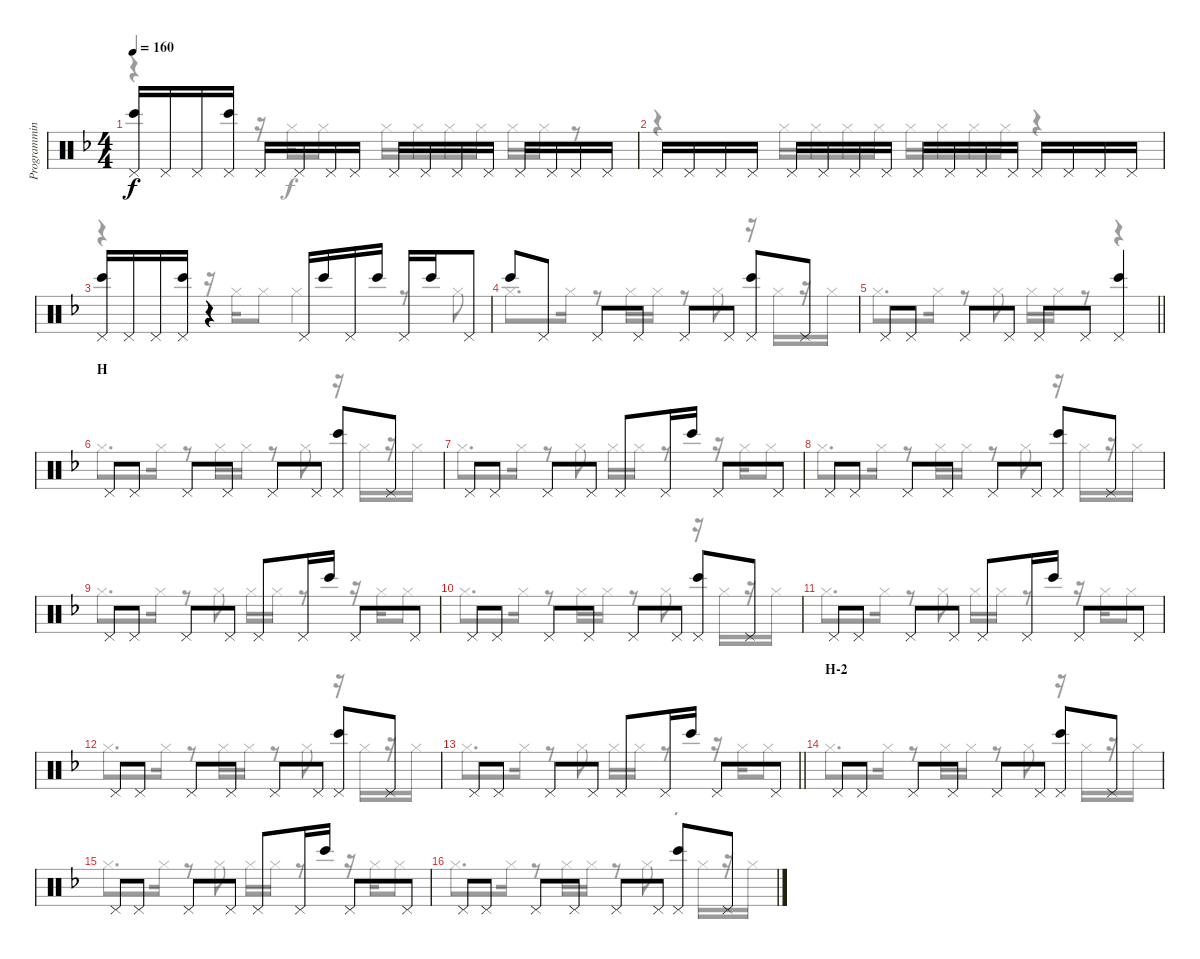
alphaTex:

\track ("Programming" "Programmin") {instrument percussion}
\staff {score}
\articulation defaults
\voice
\ts (4 4)
\tempo 160
\clef neutral
\ks f
("Pedal Hi-Hat (hit)" "Bongo High (hit)").16{dy f} "Pedal Hi-Hat (hit)".16 "Pedal Hi-Hat (hit)".16 ("Pedal Hi-Hat (hit)" "Bongo High (hit)").16 "Pedal Hi-Hat (hit)".16 "Pedal Hi-Hat (hit)".16 "Pedal Hi-Hat (hit)".16 "Pedal Hi-Hat (hit)".16 "Pedal Hi-Hat (hit)".16 "Pedal Hi-Hat (hit)".16 "Pedal Hi-Hat (hit)".16 "Pedal Hi-Hat (hit)".16 "Pedal Hi-Hat (hit)".16 "Pedal Hi-Hat (hit)".16 "Pedal Hi-Hat (hit)".16 "Pedal Hi-Hat (hit)".16 |
"Pedal Hi-Hat (hit)".16 "Pedal Hi-Hat (hit)".16 "Pedal Hi-Hat (hit)".16 "Pedal Hi-Hat (hit)".16 "Pedal Hi-Hat (hit)".16 "Pedal Hi-Hat (hit)".16 "Pedal Hi-Hat (hit)".16 "Pedal Hi-Hat (hit)".16 "Pedal Hi-Hat (hit)".16 "Pedal Hi-Hat (hit)".16 "Pedal Hi-Hat (hit)".16 "Pedal Hi-Hat (hit)".16 "Pedal Hi-Hat (hit)".16 "Pedal Hi-Hat (hit)".16 "Pedal Hi-Hat (hit)".16 "Pedal Hi-Hat (hit)".16 |
("Pedal Hi-Hat (hit)" "Bongo High (hit)").16 "Pedal Hi-Hat (hit)".16 "Pedal Hi-Hat (hit)".16 ("Pedal Hi-Hat (hit)" "Bongo High (hit)").16 r.4 "Pedal Hi-Hat (hit)".16 "Bongo High (hit)".16 "Pedal Hi-Hat (hit)".16 "Bongo High (hit)".16 "Pedal Hi-Hat (hit)".16 "Bongo High (hit)".16 "Pedal Hi-Hat (hit)".8 |
"Bongo High (hit)".8 "Pedal Hi-Hat (hit)".8 "Pedal Hi-Hat (hit)".8 "Pedal Hi-Hat (hit)".8 "Pedal Hi-Hat (hit)".8 "Pedal Hi-Hat (hit)".8 ("Pedal Hi-Hat (hit)" "Bongo High (hit)").8 "Pedal Hi-Hat (hit)".8 |
\barLineRight lightlight "Pedal Hi-Hat (hit)".8 "Pedal Hi-Hat (hit)".8 "Pedal Hi-Hat (hit)".8 "Pedal Hi-Hat (hit)".8 "Pedal Hi-Hat (hit)".8 "Pedal Hi-Hat (hit)".8
("Pedal Hi-Hat (hit)" "Bongo High (hit)").4 |
\section ("" "H")
"Pedal Hi-Hat (hit)".8 "Pedal Hi-Hat (hit)".8 "Pedal Hi-Hat (hit)".8 "Pedal Hi-Hat (hit)".8 "Pedal Hi-Hat (hit)".8 "Pedal Hi-Hat (hit)".8 ("Pedal Hi-Hat (hit)" "Bongo High (hit)").8 "Pedal Hi-Hat (hit)".8 |
"Pedal Hi-Hat (hit)".8 "Pedal Hi-Hat (hit)".8 "Pedal Hi-Hat (hit)".8 "Pedal Hi-Hat (hit)".8 "Pedal Hi-Hat (hit)".8 "Pedal Hi-Hat (hit)".16 "Bongo High (hit)".16 "Pedal Hi-Hat (hit)".8 "Pedal Hi-Hat (hit)".8 |
"Pedal Hi-Hat (hit)".8 "Pedal Hi-Hat (hit)".8 "Pedal Hi-Hat (hit)".8 "Pedal Hi-Hat (hit)".8 "Pedal Hi-Hat (hit)".8 "Pedal Hi-Hat (hit)".8 ("Pedal Hi-Hat (hit)" "Bongo High (hit)").8 "Pedal Hi-Hat (hit)".8 |
"Pedal Hi-Hat (hit)".8 "Pedal Hi-Hat (hit)".8 "Pedal Hi-Hat (hit)".8 "Pedal Hi-Hat (hit)".8 "Pedal Hi-Hat (hit)".8 "Pedal Hi-Hat (hit)".16 "Bongo High (hit)".16 "Pedal Hi-Hat (hit)".8 "Pedal Hi-Hat (hit)".8 |
"Pedal Hi-Hat (hit)".8 "Pedal Hi-Hat (hit)".8 "Pedal Hi-Hat (hit)".8 "Pedal Hi-Hat (hit)".8 "Pedal Hi-Hat (hit)".8 "Pedal Hi-Hat (hit)".8 ("Pedal Hi-Hat (hit)" "Bongo High (hit)").8 "Pedal Hi-Hat (hit)".8 |
"Pedal Hi-Hat (hit)".8 "Pedal Hi-Hat (hit)".8 "Pedal Hi-Hat (hit)".8 "Pedal Hi-Hat (hit)".8 "Pedal Hi-Hat (hit)".8 "Pedal Hi-Hat (hit)".16 "Bongo High (hit)".16 "Pedal Hi-Hat (hit)".8 "Pedal Hi-Hat (hit)".8 |
"Pedal Hi-Hat (hit)".8 "Pedal Hi-Hat (hit)".8 "Pedal Hi-Hat (hit)".8 "Pedal Hi-Hat (hit)".8 "Pedal Hi-Hat (hit)".8 "Pedal Hi-Hat (hit)".8 ("Pedal Hi-Hat (hit)" "Bongo High (hit)").8 "Pedal Hi-Hat (hit)".8 |
\barLineRight lightlight "Pedal Hi-Hat (hit)".8 "Pedal Hi-Hat (hit)".8 "Pedal Hi-Hat (hit)".8 "Pedal Hi-Hat (hit)".8 "Pedal Hi-Hat (hit)".8 "Pedal Hi-Hat (hit)".16 "Bongo High (hit)".16 "Pedal Hi-Hat (hit)".8 "Pedal Hi-Hat (hit)".8
|
\section ("" "H-2")
"Pedal Hi-Hat (hit)".8 "Pedal Hi-Hat (hit)".8 "Pedal Hi-Hat (hit)".8 "Pedal Hi-Hat (hit)".8 "Pedal Hi-Hat (hit)".8 "Pedal Hi-Hat (hit)".8 ("Pedal Hi-Hat (hit)" "Bongo High (hit)").8 "Pedal Hi-Hat (hit)".8 |
"Pedal Hi-Hat (hit)".8 "Pedal Hi-Hat (hit)".8 "Pedal Hi-Hat (hit)".8 "Pedal Hi-Hat (hit)".8 "Pedal Hi-Hat (hit)".8 "Pedal Hi-Hat (hit)".16 "Bongo High (hit)".16 "Pedal Hi-Hat (hit)".8 "Pedal Hi-Hat (hit)".8 |
"Pedal Hi-Hat (hit)".8 "Pedal Hi-Hat (hit)".8 "Pedal Hi-Hat (hit)".8 "Pedal Hi-Hat (hit)".8 "Pedal Hi-Hat (hit)".8 "Pedal Hi-Hat (hit)".8 ("Pedal Hi-Hat (hit)" "Bongo High (hit)").8 "Pedal Hi-Hat (hit)".8
\voice
\clef neutral
\ottava regular
\simile none
\ks f
r.4{dy f} r.16 "Hi-Hat (closed)".16 "Hi-Hat (closed)".8 "Hi-Hat (closed)".16 "Hi-Hat (closed)".16 "Hi-Hat (closed)".16 "Hi-Hat (closed)".16 "Hi-Hat (closed)".16 "Hi-Hat (closed)".16 r.8 |
r.4 "Hi-Hat (closed)".16 "Hi-Hat (closed)".16 "Hi-Hat (closed)".16 "Hi-Hat (closed)".16 "Hi-Hat (closed)".16 "Hi-Hat (closed)".16 "Hi-Hat (closed)".16 "Hi-Hat (closed)".16 r.4 |
r.4 r.16 "Hi-Hat (closed)".16 "Hi-Hat (closed)".8 "Hi-Hat (closed)".4 r.8 "Hi-Hat (closed)".8 |
"Hi-Hat (closed)".8{d} "Hi-Hat (closed)".16 r.8 "Hi-Hat (closed)".16 "Hi-Hat (closed)".16 r.8 "Hi-Hat (closed)".8 r.16 "Hi-Hat (closed)".16 r.16 "Hi-Hat (closed)".16 |
\barLineRight lightlight "Hi-Hat (closed)".8{d} "Hi-Hat (closed)".16
r.8 "Hi-Hat (closed)".8 "Hi-Hat (closed)".16 "Hi-Hat (closed)".16 r.8 r.4 |
"Hi-Hat (closed)".8{d} "Hi-Hat (closed)".16 r.8 "Hi-Hat (closed)".16 "Hi-Hat (closed)".16 r.8 "Hi-Hat (closed)".8 r.16 "Hi-Hat (closed)".16 r.16 "Hi-Hat (closed)".16 |
"Hi-Hat (closed)".8{d} "Hi-Hat (closed)".16 r.8 "Hi-Hat (closed)".8 "Hi-Hat (closed)".16 "Hi-Hat (closed)".16 r.8 r.16 "Hi-Hat (closed)".16 "Hi-Hat (closed)".8 |
"Hi-Hat (closed)".8{d} "Hi-Hat (closed)".16 r.8 "Hi-Hat (closed)".16 "Hi-Hat (closed)".16 r.8 "Hi-Hat (closed)".8 r.16 "Hi-Hat (closed)".16 r.16 "Hi-Hat (closed)".16 |
"Hi-Hat (closed)".8{d} "Hi-Hat (closed)".16 r.8 "Hi-Hat (closed)".8 "Hi-Hat (closed)".16 "Hi-Hat (closed)".16 r.8 r.16 "Hi-Hat (closed)".16 "Hi-Hat (closed)".8 |
"Hi-Hat (closed)".8{d} "Hi-Hat (closed)".16 r.8 "Hi-Hat (closed)".16 "Hi-Hat (closed)".16 r.8 "Hi-Hat (closed)".8 r.16 "Hi-Hat (closed)".16 r.16 "Hi-Hat (closed)".16 |
"Hi-Hat (closed)".8{d} "Hi-Hat (closed)".16 r.8 "Hi-Hat (closed)".8 "Hi-Hat (closed)".16 "Hi-Hat (closed)".16 r.8 r.16 "Hi-Hat (closed)".16 "Hi-Hat (closed)".8 |
"Hi-Hat (closed)".8{d} "Hi-Hat (closed)".16 r.8 "Hi-Hat (closed)".16 "Hi-Hat (closed)".16 r.8 "Hi-Hat (closed)".8 r.16 "Hi-Hat (closed)".16 r.16 "Hi-Hat (closed)".16 |
\barLineRight lightlight "Hi-Hat (closed)".8{d} "Hi-Hat (closed)".16
r.8 "Hi-Hat (closed)".8 "Hi-Hat (closed)".16 "Hi-Hat (closed)".16 r.8 r.16 "Hi-Hat (closed)".16 "Hi-Hat (closed)".8 |
"Hi-Hat (closed)".8{d} "Hi-Hat (closed)".16 r.8 "Hi-Hat (closed)".16 "Hi-Hat (closed)".16 r.8 "Hi-Hat (closed)".8 r.16 "Hi-Hat (closed)".16 r.16 "Hi-Hat (closed)".16 |
"Hi-Hat (closed)".8{d} "Hi-Hat (closed)".16 r.8 "Hi-Hat (closed)".8 "Hi-Hat (closed)".16 "Hi-Hat (closed)".16 r.8 r.16 "Hi-Hat (closed)".16 "Hi-Hat (closed)".8 |
"Hi-Hat (closed)".8{d} "Hi-Hat (closed)".16 r.8 "Hi-Hat (closed)".16 "Hi-Hat (closed)".16 r.8 "Hi-Hat (closed)".8 r.16 "Hi-Hat (closed)".16 r.16 "Hi-Hat (closed)".16
